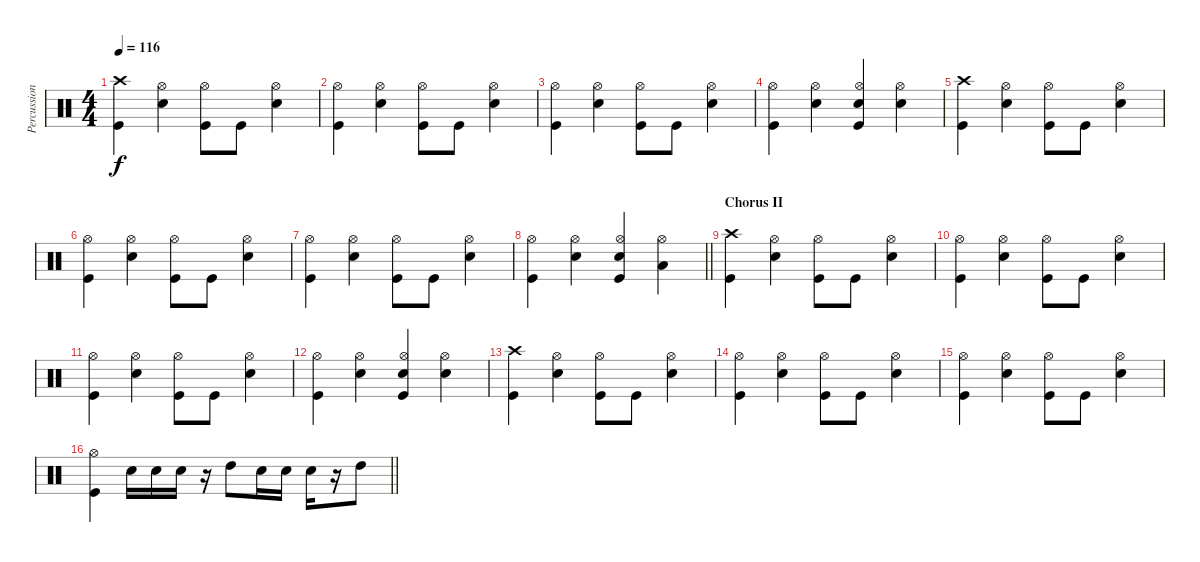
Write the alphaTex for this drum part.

\track ("Percussions" "Percussion") {instrument percussion}
\staff {score}
\articulation defaults
\ts (4 4)
\tempo 116
\clef neutral
\ks c
("Crash high (hit)" "Kick (hit)").4{dy f} ("Hi-Hat (open)" "Snare (hit) 2").4 ("Hi-Hat (open)" "Kick (hit)").8 "Kick (hit)".8 ("Hi-Hat (open)" "Snare (hit) 2").4 |
("Hi-Hat (open)" "Kick (hit)").4 ("Hi-Hat (open)" "Snare (hit) 2").4 ("Hi-Hat (open)" "Kick (hit)").8 "Kick (hit)".8 ("Hi-Hat (open)" "Snare (hit) 2").4 |
("Hi-Hat (open)" "Kick (hit)").4 ("Hi-Hat (open)" "Snare (hit) 2").4 ("Hi-Hat (open)" "Kick (hit)").8 "Kick (hit)".8 ("Hi-Hat (open)" "Snare (hit) 2").4 |
("Hi-Hat (open)" "Kick (hit)").4 ("Hi-Hat (open)" "Snare (hit) 2").4 ("Hi-Hat (open)" "Snare (hit) 2" "Kick (hit)").4 ("Hi-Hat (open)" "Snare (hit) 2").4 |
("Crash high (hit)" "Kick (hit)").4 ("Hi-Hat (open)" "Snare (hit) 2").4 ("Hi-Hat (open)" "Kick (hit)").8 "Kick (hit)".8 ("Hi-Hat (open)" "Snare (hit) 2").4 |
("Hi-Hat (open)" "Kick (hit)").4 ("Hi-Hat (open)" "Snare (hit) 2").4 ("Hi-Hat (open)" "Kick (hit)").8 "Kick (hit)".8 ("Hi-Hat (open)" "Snare (hit) 2").4 |
("Hi-Hat (open)" "Kick (hit)").4 ("Hi-Hat (open)" "Snare (hit) 2").4 ("Hi-Hat (open)" "Kick (hit)").8 "Kick (hit)".8 ("Hi-Hat (open)" "Snare (hit) 2").4 |
\barLineRight lightlight
("Hi-Hat (open)" "Kick (hit)").4 ("Hi-Hat (open)" "Snare (hit) 2").4 ("Hi-Hat (open)" "Snare (hit) 2" "Kick (hit)").4 ("Hi-Hat (open)" "Low Tom (hit)").4 |
\section ("" "Chorus II")
("Crash high (hit)" "Kick (hit)").4 ("Hi-Hat (open)" "Snare (hit) 2").4 ("Hi-Hat (open)" "Kick (hit)").8 "Kick (hit)".8 ("Hi-Hat (open)" "Snare (hit) 2").4 |
("Hi-Hat (open)" "Kick (hit)").4 ("Hi-Hat (open)" "Snare (hit) 2").4 ("Hi-Hat (open)" "Kick (hit)").8 "Kick (hit)".8 ("Hi-Hat (open)" "Snare (hit) 2").4 |
("Hi-Hat (open)" "Kick (hit)").4 ("Hi-Hat (open)" "Snare (hit) 2").4 ("Hi-Hat (open)" "Kick (hit)").8 "Kick (hit)".8 ("Hi-Hat (open)" "Snare (hit) 2").4 |
("Hi-Hat (open)" "Kick (hit)").4 ("Hi-Hat (open)" "Snare (hit) 2").4 ("Hi-Hat (open)" "Snare (hit) 2" "Kick (hit)").4 ("Hi-Hat (open)" "Snare (hit) 2").4 |
("Crash high (hit)" "Kick (hit)").4 ("Hi-Hat (open)" "Snare (hit) 2").4 ("Hi-Hat (open)" "Kick (hit)").8 "Kick (hit)".8 ("Hi-Hat (open)" "Snare (hit) 2").4 |
("Hi-Hat (open)" "Kick (hit)").4 ("Hi-Hat (open)" "Snare (hit) 2").4 ("Hi-Hat (open)" "Kick (hit)").8 "Kick (hit)".8 ("Hi-Hat (open)" "Snare (hit) 2").4 |
("Hi-Hat (open)" "Kick (hit)").4 ("Hi-Hat (open)" "Snare (hit) 2").4 ("Hi-Hat (open)" "Kick (hit)").8 "Kick (hit)".8 ("Hi-Hat (open)" "Snare (hit) 2").4 |
\barLineRight lightlight
("Hi-Hat (open)" "Kick (hit)").4 "Snare (hit) 2".16 "Snare (hit) 2".16 "Snare (hit) 2".16 r.16 "High Tom (hit)".8 "Snare (hit) 2".16 "Snare (hit) 2".16 "Snare (hit) 2".16 r.16 "High Tom (hit)".8
